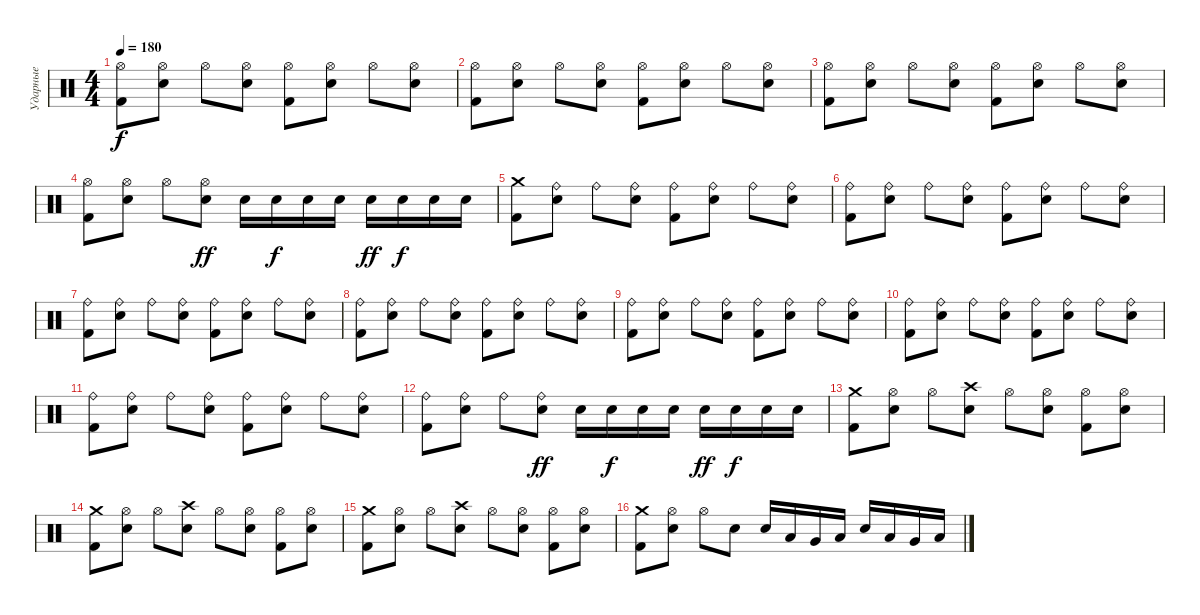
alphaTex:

\track ("Ударные" "Ударные") {instrument percussion}
\staff {score}
\articulation defaults
\ts (4 4)
\tempo 180
\clef neutral
\ks c
("Hi-Hat (open)" "Kick (hit) 2").8{dy f} ("Hi-Hat (open)" "Snare (hit) 2").8 "Hi-Hat (open)".8 ("Hi-Hat (open)" "Snare (hit) 2").8 ("Hi-Hat (open)" "Kick (hit) 2").8 ("Hi-Hat (open)" "Snare (hit) 2").8 "Hi-Hat (open)".8 ("Hi-Hat (open)" "Snare (hit) 2").8 |
("Hi-Hat (open)" "Kick (hit) 2").8 ("Hi-Hat (open)" "Snare (hit) 2").8 "Hi-Hat (open)".8 ("Hi-Hat (open)" "Snare (hit) 2").8 ("Hi-Hat (open)" "Kick (hit) 2").8 ("Hi-Hat (open)" "Snare (hit) 2").8 "Hi-Hat (open)".8 ("Hi-Hat (open)" "Snare (hit) 2").8 |
("Hi-Hat (open)" "Kick (hit) 2").8 ("Hi-Hat (open)" "Snare (hit) 2").8 "Hi-Hat (open)".8 ("Hi-Hat (open)" "Snare (hit) 2").8 ("Hi-Hat (open)" "Kick (hit) 2").8 ("Hi-Hat (open)" "Snare (hit) 2").8 "Hi-Hat (open)".8 ("Hi-Hat (open)" "Snare (hit) 2").8 |
("Hi-Hat (open)" "Kick (hit) 2").8 ("Hi-Hat (open)" "Snare (hit) 2").8 "Hi-Hat (open)".8 ("Hi-Hat (open)" "Snare (hit) 2").8{dy ff} "Snare (hit) 2".16 "Snare (hit) 2".16{dy f} "Snare (hit) 2".16 "Snare (hit) 2".16 "Snare (hit) 2".16{dy ff} "Snare (hit) 2".16{dy f} "Snare (hit) 2".16 "Snare (hit) 2".16 |
("Crash medium (hit)" "Kick (hit) 2").8 ("Ride (bell)" "Snare (hit) 2").8 "Ride (bell)".8 ("Ride (bell)" "Snare (hit) 2").8 ("Ride (bell)" "Kick (hit) 2").8 ("Ride (bell)" "Snare (hit) 2").8 "Ride (bell)".8 ("Ride (bell)" "Snare (hit) 2").8 |
("Ride (bell)" "Kick (hit) 2").8 ("Ride (bell)" "Snare (hit) 2").8 "Ride (bell)".8 ("Ride (bell)" "Snare (hit) 2").8 ("Ride (bell)" "Kick (hit) 2").8 ("Ride (bell)" "Snare (hit) 2").8 "Ride (bell)".8 ("Ride (bell)" "Snare (hit) 2").8 |
("Ride (bell)" "Kick (hit) 2").8 ("Ride (bell)" "Snare (hit) 2").8 "Ride (bell)".8 ("Ride (bell)" "Snare (hit) 2").8 ("Ride (bell)" "Kick (hit) 2").8 ("Ride (bell)" "Snare (hit) 2").8 "Ride (bell)".8 ("Ride (bell)" "Snare (hit) 2").8 |
("Ride (bell)" "Kick (hit) 2").8 ("Ride (bell)" "Snare (hit) 2").8 "Ride (bell)".8 ("Ride (bell)" "Snare (hit) 2").8 ("Ride (bell)" "Kick (hit) 2").8 ("Ride (bell)" "Snare (hit) 2").8 "Ride (bell)".8 ("Ride (bell)" "Snare (hit) 2").8 |
("Ride (bell)" "Kick (hit) 2").8 ("Ride (bell)" "Snare (hit) 2").8 "Ride (bell)".8 ("Ride (bell)" "Snare (hit) 2").8 ("Ride (bell)" "Kick (hit) 2").8 ("Ride (bell)" "Snare (hit) 2").8 "Ride (bell)".8 ("Ride (bell)" "Snare (hit) 2").8 |
("Ride (bell)" "Kick (hit) 2").8 ("Ride (bell)" "Snare (hit) 2").8 "Ride (bell)".8 ("Ride (bell)" "Snare (hit) 2").8 ("Ride (bell)" "Kick (hit) 2").8 ("Ride (bell)" "Snare (hit) 2").8 "Ride (bell)".8 ("Ride (bell)" "Snare (hit) 2").8 |
("Ride (bell)" "Kick (hit) 2").8 ("Ride (bell)" "Snare (hit) 2").8 "Ride (bell)".8 ("Ride (bell)" "Snare (hit) 2").8 ("Ride (bell)" "Kick (hit) 2").8 ("Ride (bell)" "Snare (hit) 2").8 "Ride (bell)".8 ("Ride (bell)" "Snare (hit) 2").8 |
("Ride (bell)" "Kick (hit) 2").8 ("Ride (bell)" "Snare (hit) 2").8 "Ride (bell)".8 ("Ride (bell)" "Snare (hit) 2").8{dy ff} "Snare (hit) 2".16 "Snare (hit) 2".16{dy f} "Snare (hit) 2".16 "Snare (hit) 2".16 "Snare (hit) 2".16{dy ff} "Snare (hit) 2".16{dy f} "Snare (hit) 2".16 "Snare (hit) 2".16 |
("Crash medium (hit)" "Kick (hit) 2").8 ("Hi-Hat (open)" "Snare (hit) 2").8 "Hi-Hat (open)".8 ("Crash high (hit)" "Snare (hit) 2").8 "Hi-Hat (open)".8 ("Hi-Hat (open)" "Snare (hit) 2").8 ("Hi-Hat (open)" "Kick (hit) 2").8 ("Hi-Hat (open)" "Snare (hit) 2").8 |
("Crash medium (hit)" "Kick (hit) 2").8 ("Hi-Hat (open)" "Snare (hit) 2").8 "Hi-Hat (open)".8 ("Crash high (hit)" "Snare (hit) 2").8 "Hi-Hat (open)".8 ("Hi-Hat (open)" "Snare (hit) 2").8 ("Hi-Hat (open)" "Kick (hit) 2").8 ("Hi-Hat (open)" "Snare (hit) 2").8 |
("Crash medium (hit)" "Kick (hit) 2").8 ("Hi-Hat (open)" "Snare (hit) 2").8 "Hi-Hat (open)".8 ("Crash high (hit)" "Snare (hit) 2").8 "Hi-Hat (open)".8 ("Hi-Hat (open)" "Snare (hit) 2").8 ("Hi-Hat (open)" "Kick (hit) 2").8 ("Hi-Hat (open)" "Snare (hit) 2").8 |
("Crash medium (hit)" "Kick (hit) 2").8 ("Hi-Hat (open)" "Snare (hit) 2").8 "Hi-Hat (open)".8 "Snare (hit) 2".8 "Snare (hit) 2".16 "Low Tom (hit)".16 "Very Low Tom (hit)".16 "Low Floor Tom (hit)".16 "Snare (hit) 2".16 "Low Tom (hit)".16 "Very Low Tom (hit)".16 "Low Floor Tom (hit)".16
